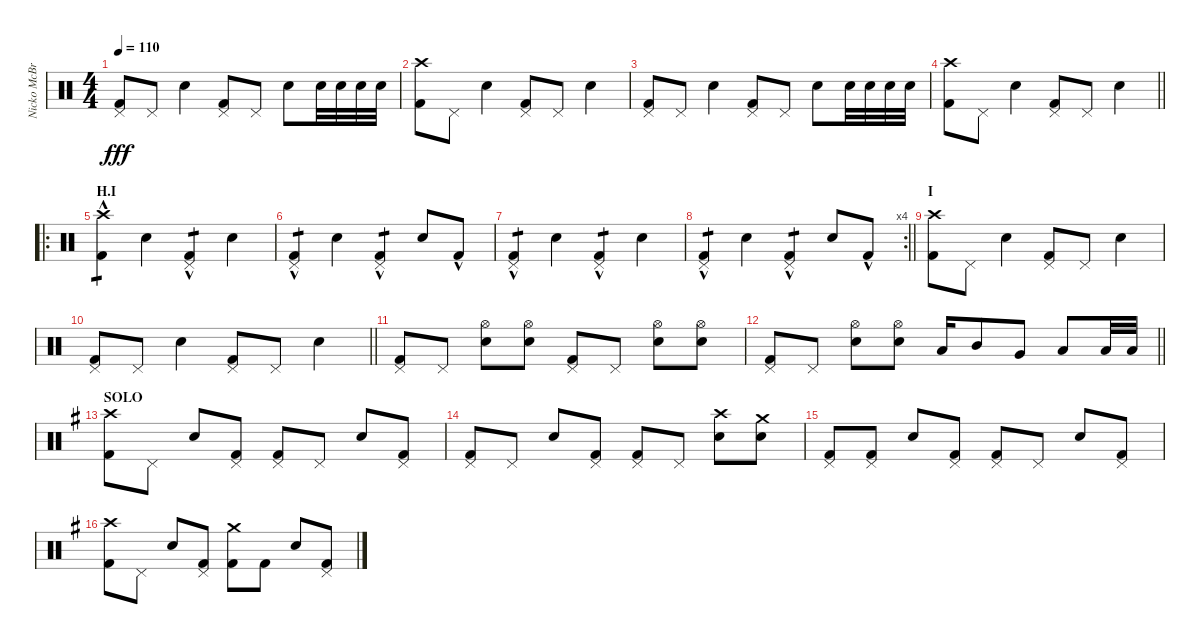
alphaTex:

\track ("Nicko McBrain" "Nicko McBr") {instrument percussion}
\staff {score}
\articulation defaults
\ts (4 4)
\tempo 110
\clef neutral
\ks c
("Pedal Hi-Hat (hit)" "Kick (hit) 2").8{dy fff} "Pedal Hi-Hat (hit)".8 "Electric Snare (hit)".4 ("Pedal Hi-Hat (hit)" "Kick (hit) 2").8 "Pedal Hi-Hat (hit)".8 "Electric Snare (hit)".8 "Electric Snare (hit)".32 "Electric Snare (hit)".32 "Electric Snare (hit)".32 "Electric Snare (hit)".32 |
("Crash high (hit)" "Kick (hit) 2").8 "Pedal Hi-Hat (hit)".8 "Electric Snare (hit)".4 ("Pedal Hi-Hat (hit)" "Kick (hit) 2").8 "Pedal Hi-Hat (hit)".8 "Electric Snare (hit)".4 |
("Pedal Hi-Hat (hit)" "Kick (hit) 2").8 "Pedal Hi-Hat (hit)".8 "Electric Snare (hit)".4 ("Pedal Hi-Hat (hit)" "Kick (hit) 2").8 "Pedal Hi-Hat (hit)".8 "Electric Snare (hit)".8 "Electric Snare (hit)".32 "Electric Snare (hit)".32 "Electric Snare (hit)".32 "Electric Snare (hit)".32 |
\barLineRight lightlight
("Crash high (hit)" "Kick (hit) 2").8 "Pedal Hi-Hat (hit)".8 "Electric Snare (hit)".4 ("Pedal Hi-Hat (hit)" "Kick (hit) 2").8 "Pedal Hi-Hat (hit)".8 "Electric Snare (hit)".4 |
\ro
\section ("" "H.I")
("Crash high (hit)" "Kick (hit) 2"{hac}).4{tp 1} "Electric Snare (hit)".4 ("Pedal Hi-Hat (hit)" "Kick (hit) 2"{hac}).4{tp 1} "Electric Snare (hit)".4 |
("Pedal Hi-Hat (hit)" "Kick (hit) 2"{hac}).4{tp 1} "Electric Snare (hit)".4 ("Pedal Hi-Hat (hit)" "Kick (hit) 2"{hac}).4{tp 1} "Electric Snare (hit)".8 "Kick (hit) 2"{hac}.8 |
("Pedal Hi-Hat (hit)" "Kick (hit) 2"{hac}).4{tp 1} "Electric Snare (hit)".4 ("Pedal Hi-Hat (hit)" "Kick (hit) 2"{hac}).4{tp 1} "Electric Snare (hit)".4 |
\rc 4
\barLineRight lightlight
("Pedal Hi-Hat (hit)" "Kick (hit) 2"{hac}).4{tp 1} "Electric Snare (hit)".4 ("Pedal Hi-Hat (hit)" "Kick (hit) 2"{hac}).4{tp 1} "Electric Snare (hit)".8 "Kick (hit) 2"{hac}.8 |
\section ("" "I")
("Crash high (hit)" "Kick (hit) 2").8 "Pedal Hi-Hat (hit)".8 "Electric Snare (hit)".4 ("Pedal Hi-Hat (hit)" "Kick (hit) 2").8 "Pedal Hi-Hat (hit)".8 "Electric Snare (hit)".4 |
\barLineRight lightlight
("Pedal Hi-Hat (hit)" "Kick (hit) 2").8 "Pedal Hi-Hat (hit)".8 "Electric Snare (hit)".4 ("Pedal Hi-Hat (hit)" "Kick (hit) 2").8 "Pedal Hi-Hat (hit)".8 "Electric Snare (hit)".4 |
("Pedal Hi-Hat (hit)" "Kick (hit) 2").8 "Pedal Hi-Hat (hit)".8 ("Electric Snare (hit)" "Hi-Hat (open)").8 ("Electric Snare (hit)" "Hi-Hat (open)").8 ("Pedal Hi-Hat (hit)" "Kick (hit) 2").8 "Pedal Hi-Hat (hit)".8 ("Electric Snare (hit)" "Hi-Hat (open)").8 ("Electric Snare (hit)" "Hi-Hat (open)").8 |
\barLineRight lightlight
("Pedal Hi-Hat (hit)" "Kick (hit) 2").8 "Pedal Hi-Hat (hit)".8 ("Electric Snare (hit)" "Hi-Hat (open)").8 ("Electric Snare (hit)" "Hi-Hat (open)").8 "Low Tom (hit)".16 "Mid Tom (hit)".8 "Very Low Tom (hit)".8 "Low Floor Tom (hit)".8 "Low Floor Tom (hit)".32 "Low Floor Tom (hit)".32 |
\section ("" "SOLO")
\ks g
("Crash high (hit)" "Kick (hit) 2").8 "Pedal Hi-Hat (hit)".8 "Electric Snare (hit)".8 ("Pedal Hi-Hat (hit)" "Kick (hit) 2").8 ("Pedal Hi-Hat (hit)" "Kick (hit) 2").8 "Pedal Hi-Hat (hit)".8 "Electric Snare (hit)".8 ("Pedal Hi-Hat (hit)" "Kick (hit) 2").8 |
("Pedal Hi-Hat (hit)" "Kick (hit) 2").8 "Pedal Hi-Hat (hit)".8 "Electric Snare (hit)".8 ("Pedal Hi-Hat (hit)" "Kick (hit) 2").8 ("Pedal Hi-Hat (hit)" "Kick (hit) 2").8 "Pedal Hi-Hat (hit)".8 ("Electric Snare (hit)" "Crash high (hit)").8 ("Electric Snare (hit)" "Crash medium (hit)").8 |
("Pedal Hi-Hat (hit)" "Kick (hit) 2").8 ("Pedal Hi-Hat (hit)" "Kick (hit) 2").8 "Electric Snare (hit)".8 ("Pedal Hi-Hat (hit)" "Kick (hit) 2").8 ("Pedal Hi-Hat (hit)" "Kick (hit) 2").8 "Pedal Hi-Hat (hit)".8 "Electric Snare (hit)".8 ("Pedal Hi-Hat (hit)" "Kick (hit) 2").8 |
("Crash high (hit)" "Kick (hit) 2").8 "Pedal Hi-Hat (hit)".8 "Electric Snare (hit)".8 ("Pedal Hi-Hat (hit)" "Kick (hit) 2").8 ("Crash medium (hit)" "Kick (hit) 2").8 "Kick (hit) 2".8 "Electric Snare (hit)".8 ("Pedal Hi-Hat (hit)" "Kick (hit) 2").8
